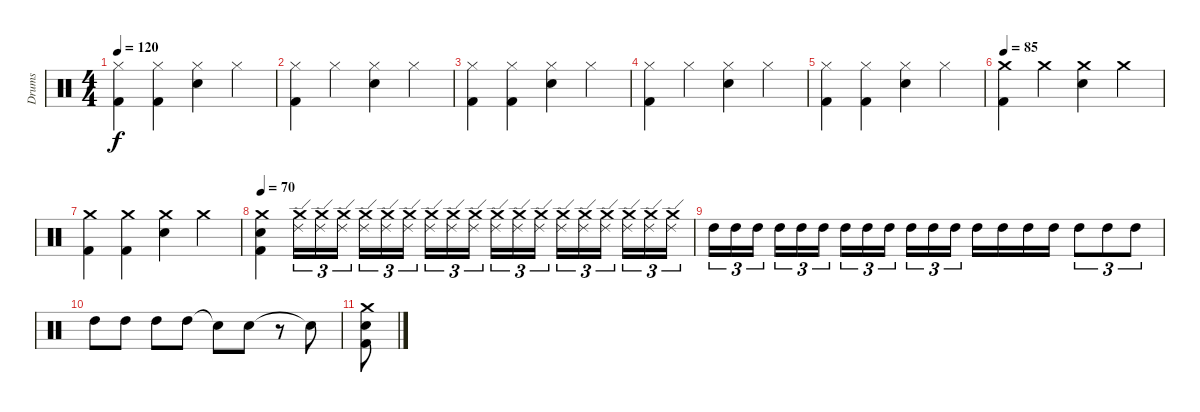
\track ("Drums" "Drums") {instrument percussion}
\staff {score}
\articulation defaults
\ts (4 4)
\tempo 120
\clef neutral
\ks c
("Kick (hit) 2" "Hi-Hat (closed)").4{dy f} ("Kick (hit) 2" "Hi-Hat (closed)").4 ("Snare (hit) 2" "Hi-Hat (closed)").4 "Hi-Hat (closed)".4 |
("Kick (hit) 2" "Hi-Hat (closed)").4 "Hi-Hat (closed)".4 ("Snare (hit) 2" "Hi-Hat (closed)").4 "Hi-Hat (closed)".4 |
("Kick (hit) 2" "Hi-Hat (closed)").4 ("Kick (hit) 2" "Hi-Hat (closed)").4 ("Snare (hit) 2" "Hi-Hat (closed)").4 "Hi-Hat (closed)".4 |
("Kick (hit) 2" "Hi-Hat (closed)").4 "Hi-Hat (closed)".4 ("Snare (hit) 2" "Hi-Hat (closed)").4 "Hi-Hat (closed)".4 |
("Kick (hit) 2" "Hi-Hat (closed)").4 ("Kick (hit) 2" "Hi-Hat (closed)").4 ("Snare (hit) 2" "Hi-Hat (closed)").4 "Hi-Hat (closed)".4 |
\tempo 85
("Kick (hit) 2" "Crash medium (hit)").4 "Crash medium (hit)".4 ("Snare (hit) 2" "Crash medium (hit)").4 "Crash medium (hit)".4 |
("Kick (hit) 2" "Crash medium (hit)").4 ("Kick (hit) 2" "Crash medium (hit)").4 ("Snare (hit) 2" "Crash medium (hit)").4 "Crash medium (hit)".4 |
\tempo 70
("Kick (hit) 2" "Snare (hit) 2" "Crash medium (hit)").4 ("Crash medium (hit)" "Ride (edge) 2").16{tu (3 2)} ("Crash medium (hit)" "Ride (edge) 2").16{tu (3 2)} ("Crash medium (hit)" "Ride (edge) 2").16{tu (3 2)} ("Crash medium (hit)" "Ride (edge) 2").16{tu (3 2)} ("Crash medium (hit)" "Ride (edge) 2").16{tu (3 2)} ("Crash medium (hit)" "Ride (edge) 2").16{tu (3 2)} ("Crash medium (hit)" "Ride (edge) 2").16{tu (3 2)} ("Crash medium (hit)" "Ride (edge) 2").16{tu (3 2)} ("Crash medium (hit)" "Ride (edge) 2").16{tu (3 2)} ("Crash medium (hit)" "Ride (edge) 2").16{tu (3 2)} ("Crash medium (hit)" "Ride (edge) 2").16{tu (3 2)} ("Crash medium (hit)" "Ride (edge) 2").16{tu (3 2)} ("Crash medium (hit)" "Ride (edge) 2").16{tu (3 2)} ("Crash medium (hit)" "Ride (edge) 2").16{tu (3 2)} ("Crash medium (hit)" "Ride (edge) 2").16{tu (3 2)} ("Crash medium (hit)" "Ride (edge) 2").16{tu (3 2)} ("Crash medium (hit)" "Ride (edge) 2").16{tu (3 2)} ("Crash medium (hit)" "Ride (edge) 2").16{tu (3 2)} |
"High Tom (hit)"{tr (47 16)}.16{tu (3 2)} "High Tom (hit)".16{tu (3 2)} "High Tom (hit)".16{tu (3 2)} "High Tom (hit)".16{tu (3 2)} "High Tom (hit)".16{tu (3 2)} "High Tom (hit)".16{tu (3 2)} "High Tom (hit)".16{tu (3 2)} "High Tom (hit)".16{tu (3 2)} "High Tom (hit)".16{tu (3 2)} "High Tom (hit)".16{tu (3 2)} "High Tom (hit)".16{tu (3 2)} "High Tom (hit)".16{tu (3 2)} "High Tom (hit)".16 "High Tom (hit)".16 "High Tom (hit)".16 "High Tom (hit)".16 "High Tom (hit)".8{tu (3 2)} "High Tom (hit)".8{tu (3 2)} "High Tom (hit)".8{tu (3 2)} |
"High Tom (hit)".8 "High Tom (hit)".8 "High Tom (hit)".8 "High Tom (hit)".8 "Snare (hit) 2"{t}.8 "Snare (hit) 2".8 r.8 "Snare (hit)"{t}.8 |
("Kick (hit) 2" "Snare (hit) 2" "Crash medium (hit)").8
